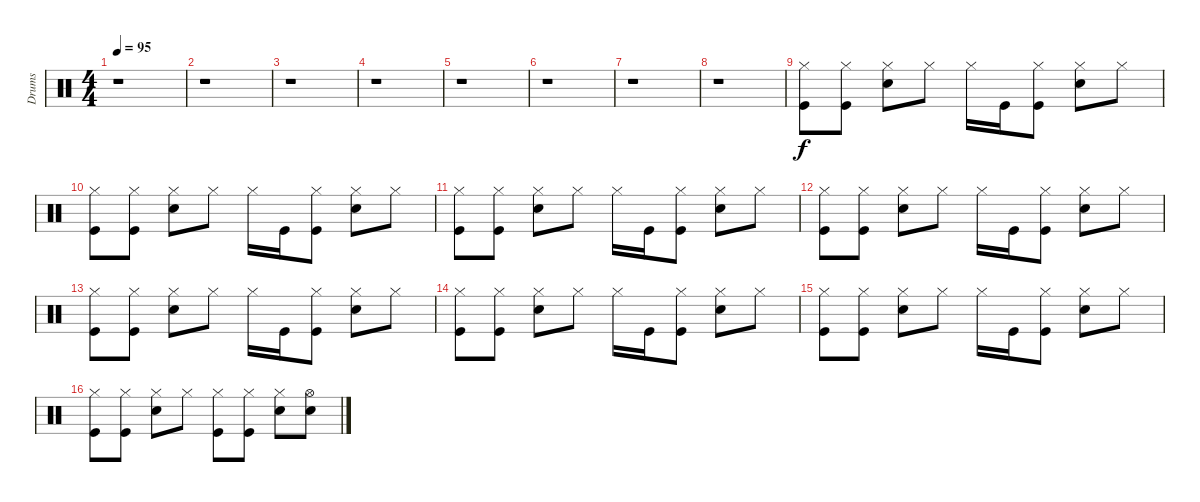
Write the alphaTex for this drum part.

\track ("Drums" "Drums") {instrument percussion}
\staff {score}
\articulation defaults
\ts (4 4)
\tempo 95
\clef neutral
\ks c
r.1{dy f} |
r.1 |
r.1 |
r.1 |
r.1 |
r.1 |
r.1 |
r.1 |
("Hi-Hat (closed)" "Kick (hit)").8 ("Hi-Hat (closed)" "Kick (hit)").8 ("Hi-Hat (closed)" "Electric Snare (hit)").8 "Hi-Hat (closed)".8 "Hi-Hat (closed)".16 "Kick (hit)".16 ("Hi-Hat (closed)" "Kick (hit)").8 ("Hi-Hat (closed)" "Electric Snare (hit)").8 "Hi-Hat (closed)".8 |
("Hi-Hat (closed)" "Kick (hit)").8 ("Hi-Hat (closed)" "Kick (hit)").8 ("Hi-Hat (closed)" "Electric Snare (hit)").8 "Hi-Hat (closed)".8 "Hi-Hat (closed)".16 "Kick (hit)".16 ("Hi-Hat (closed)" "Kick (hit)").8 ("Hi-Hat (closed)" "Electric Snare (hit)").8 "Hi-Hat (closed)".8 |
("Hi-Hat (closed)" "Kick (hit)").8 ("Hi-Hat (closed)" "Kick (hit)").8 ("Hi-Hat (closed)" "Electric Snare (hit)").8 "Hi-Hat (closed)".8 "Hi-Hat (closed)".16 "Kick (hit)".16 ("Hi-Hat (closed)" "Kick (hit)").8 ("Hi-Hat (closed)" "Electric Snare (hit)").8 "Hi-Hat (closed)".8 |
("Hi-Hat (closed)" "Kick (hit)").8 ("Hi-Hat (closed)" "Kick (hit)").8 ("Hi-Hat (closed)" "Electric Snare (hit)").8 "Hi-Hat (closed)".8 "Hi-Hat (closed)".16 "Kick (hit)".16 ("Hi-Hat (closed)" "Kick (hit)").8 ("Hi-Hat (closed)" "Electric Snare (hit)").8 "Hi-Hat (closed)".8 |
("Hi-Hat (closed)" "Kick (hit)").8 ("Hi-Hat (closed)" "Kick (hit)").8 ("Hi-Hat (closed)" "Electric Snare (hit)").8 "Hi-Hat (closed)".8 "Hi-Hat (closed)".16 "Kick (hit)".16 ("Hi-Hat (closed)" "Kick (hit)").8 ("Hi-Hat (closed)" "Electric Snare (hit)").8 "Hi-Hat (closed)".8 |
("Hi-Hat (closed)" "Kick (hit)").8 ("Hi-Hat (closed)" "Kick (hit)").8 ("Hi-Hat (closed)" "Electric Snare (hit)").8 "Hi-Hat (closed)".8 "Hi-Hat (closed)".16 "Kick (hit)".16 ("Hi-Hat (closed)" "Kick (hit)").8 ("Hi-Hat (closed)" "Electric Snare (hit)").8 "Hi-Hat (closed)".8 |
("Hi-Hat (closed)" "Kick (hit)").8 ("Hi-Hat (closed)" "Kick (hit)").8 ("Hi-Hat (closed)" "Electric Snare (hit)").8 "Hi-Hat (closed)".8 "Hi-Hat (closed)".16 "Kick (hit)".16 ("Hi-Hat (closed)" "Kick (hit)").8 ("Hi-Hat (closed)" "Electric Snare (hit)").8 "Hi-Hat (closed)".8 |
("Hi-Hat (closed)" "Kick (hit)").8 ("Hi-Hat (closed)" "Kick (hit)").8 ("Hi-Hat (closed)" "Electric Snare (hit)").8 "Hi-Hat (closed)".8 ("Hi-Hat (closed)" "Kick (hit)").8 ("Hi-Hat (closed)" "Kick (hit)").8 ("Hi-Hat (closed)" "Electric Snare (hit)").8 ("Hi-Hat (open)" "Electric Snare (hit)").8
